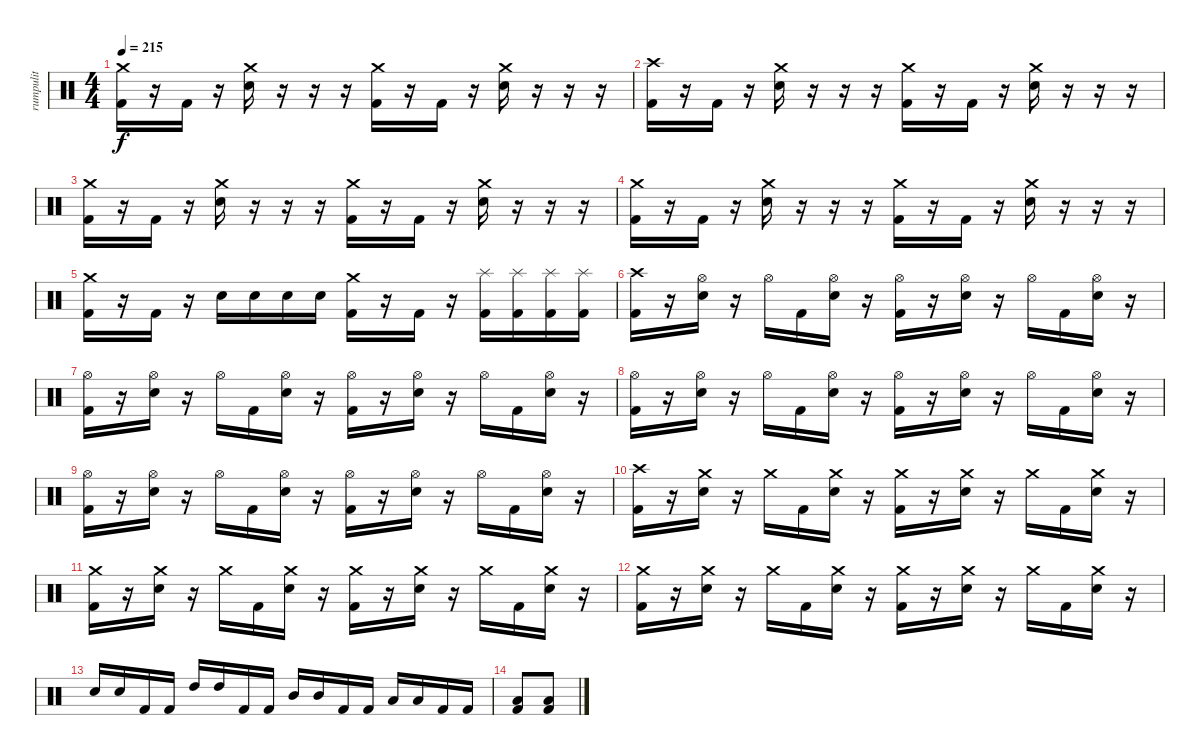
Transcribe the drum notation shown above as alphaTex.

\track ("rumpulit" "rumpulit") {instrument percussion}
\staff {score}
\articulation defaults
\ts (4 4)
\tempo 215
\clef neutral
\ks c
("Crash medium (hit)" "Kick (hit) 2").16{dy f} r.16 "Kick (hit) 2".16 r.16 ("Crash medium (hit)" "Electric Snare (hit)").16 r.16 r.16 r.16 ("Crash medium (hit)" "Kick (hit) 2").16 r.16 "Kick (hit) 2".16 r.16 ("Crash medium (hit)" "Electric Snare (hit)").16 r.16 r.16 r.16 |
("Crash high (hit)" "Kick (hit) 2").16 r.16 "Kick (hit) 2".16 r.16 ("Crash medium (hit)" "Electric Snare (hit)").16 r.16 r.16 r.16 ("Crash medium (hit)" "Kick (hit) 2").16 r.16 "Kick (hit) 2".16 r.16 ("Crash medium (hit)" "Electric Snare (hit)").16 r.16 r.16 r.16 |
("Crash medium (hit)" "Kick (hit) 2").16 r.16 "Kick (hit) 2".16 r.16 ("Crash medium (hit)" "Electric Snare (hit)").16 r.16 r.16 r.16 ("Crash medium (hit)" "Kick (hit) 2").16 r.16 "Kick (hit) 2".16 r.16 ("Crash medium (hit)" "Electric Snare (hit)").16 r.16 r.16 r.16 |
("Crash medium (hit)" "Kick (hit) 2").16 r.16 "Kick (hit) 2".16 r.16 ("Crash medium (hit)" "Electric Snare (hit)").16 r.16 r.16 r.16 ("Crash medium (hit)" "Kick (hit) 2").16 r.16 "Kick (hit) 2".16 r.16 ("Crash medium (hit)" "Electric Snare (hit)").16 r.16 r.16 r.16 |
("Crash medium (hit)" "Kick (hit) 2").16 r.16 "Kick (hit) 2".16 r.16 "Electric Snare (hit)".16 "Electric Snare (hit)".16 "Electric Snare (hit)".16 "Electric Snare (hit)".16 ("Crash medium (hit)" "Kick (hit) 2").16 r.16 "Kick (hit) 2".16 r.16 ("Splash (hit)" "Kick (hit) 2").16 ("Splash (hit)" "Kick (hit) 2").16 ("Splash (hit)" "Kick (hit) 2").16 ("Splash (hit)" "Kick (hit) 2").16 |
("Crash high (hit)" "Kick (hit) 2").16 r.16 ("Hi-Hat (open)" "Electric Snare (hit)").16 r.16 "Hi-Hat (open)".16 "Kick (hit) 2".16 ("Hi-Hat (open)" "Electric Snare (hit)").16 r.16 ("Hi-Hat (open)" "Kick (hit) 2").16 r.16 ("Hi-Hat (open)" "Electric Snare (hit)").16 r.16 "Hi-Hat (open)".16 "Kick (hit) 2".16 ("Hi-Hat (open)" "Electric Snare (hit)").16 r.16 |
("Hi-Hat (open)" "Kick (hit) 2").16 r.16 ("Hi-Hat (open)" "Electric Snare (hit)").16 r.16 "Hi-Hat (open)".16 "Kick (hit) 2".16 ("Hi-Hat (open)" "Electric Snare (hit)").16 r.16 ("Hi-Hat (open)" "Kick (hit) 2").16 r.16 ("Hi-Hat (open)" "Electric Snare (hit)").16 r.16 "Hi-Hat (open)".16 "Kick (hit) 2".16 ("Hi-Hat (open)" "Electric Snare (hit)").16 r.16 |
("Hi-Hat (open)" "Kick (hit) 2").16 r.16 ("Hi-Hat (open)" "Electric Snare (hit)").16 r.16 "Hi-Hat (open)".16 "Kick (hit) 2".16 ("Hi-Hat (open)" "Electric Snare (hit)").16 r.16 ("Hi-Hat (open)" "Kick (hit) 2").16 r.16 ("Hi-Hat (open)" "Electric Snare (hit)").16 r.16 "Hi-Hat (open)".16 "Kick (hit) 2".16 ("Hi-Hat (open)" "Electric Snare (hit)").16 r.16 |
("Hi-Hat (open)" "Kick (hit) 2").16 r.16 ("Hi-Hat (open)" "Electric Snare (hit)").16 r.16 "Hi-Hat (open)".16 "Kick (hit) 2".16 ("Hi-Hat (open)" "Electric Snare (hit)").16 r.16 ("Hi-Hat (open)" "Kick (hit) 2").16 r.16 ("Hi-Hat (open)" "Electric Snare (hit)").16 r.16 "Hi-Hat (open)".16 "Kick (hit) 2".16 ("Hi-Hat (open)" "Electric Snare (hit)").16 r.16 |
("Crash high (hit)" "Kick (hit) 2").16 r.16 ("Crash medium (hit)" "Electric Snare (hit)").16 r.16 "Crash medium (hit)".16 "Kick (hit) 2".16 ("Crash medium (hit)" "Electric Snare (hit)").16 r.16 ("Crash medium (hit)" "Kick (hit) 2").16 r.16 ("Crash medium (hit)" "Electric Snare (hit)").16 r.16 "Crash medium (hit)".16 "Kick (hit) 2".16 ("Crash medium (hit)" "Electric Snare (hit)").16 r.16 |
("Crash medium (hit)" "Kick (hit) 2").16 r.16 ("Crash medium (hit)" "Electric Snare (hit)").16 r.16 "Crash medium (hit)".16 "Kick (hit) 2".16 ("Crash medium (hit)" "Electric Snare (hit)").16 r.16 ("Crash medium (hit)" "Kick (hit) 2").16 r.16 ("Crash medium (hit)" "Electric Snare (hit)").16 r.16 "Crash medium (hit)".16 "Kick (hit) 2".16 ("Crash medium (hit)" "Electric Snare (hit)").16 r.16 |
("Crash medium (hit)" "Kick (hit) 2").16 r.16 ("Crash medium (hit)" "Electric Snare (hit)").16 r.16 "Crash medium (hit)".16 "Kick (hit) 2".16 ("Crash medium (hit)" "Electric Snare (hit)").16 r.16 ("Crash medium (hit)" "Kick (hit) 2").16 r.16 ("Crash medium (hit)" "Electric Snare (hit)").16 r.16 "Crash medium (hit)".16 "Kick (hit) 2".16 ("Crash medium (hit)" "Electric Snare (hit)").16 r.16 |
"Electric Snare (hit)".16 "Electric Snare (hit)".16 "Kick (hit) 2".16 "Kick (hit) 2".16 "High Tom (hit)".16 "High Tom (hit)".16 "Kick (hit) 2".16 "Kick (hit) 2".16 "Mid Tom (hit)".16 "Mid Tom (hit)".16 "Kick (hit) 2".16 "Kick (hit) 2".16 "Low Tom (hit)".16 "Low Tom (hit)".16 "Kick (hit) 2".16 "Kick (hit) 2".16 |
("Kick (hit) 2" "Low Floor Tom (hit)").8 ("Kick (hit) 2" "Low Floor Tom (hit)").8
